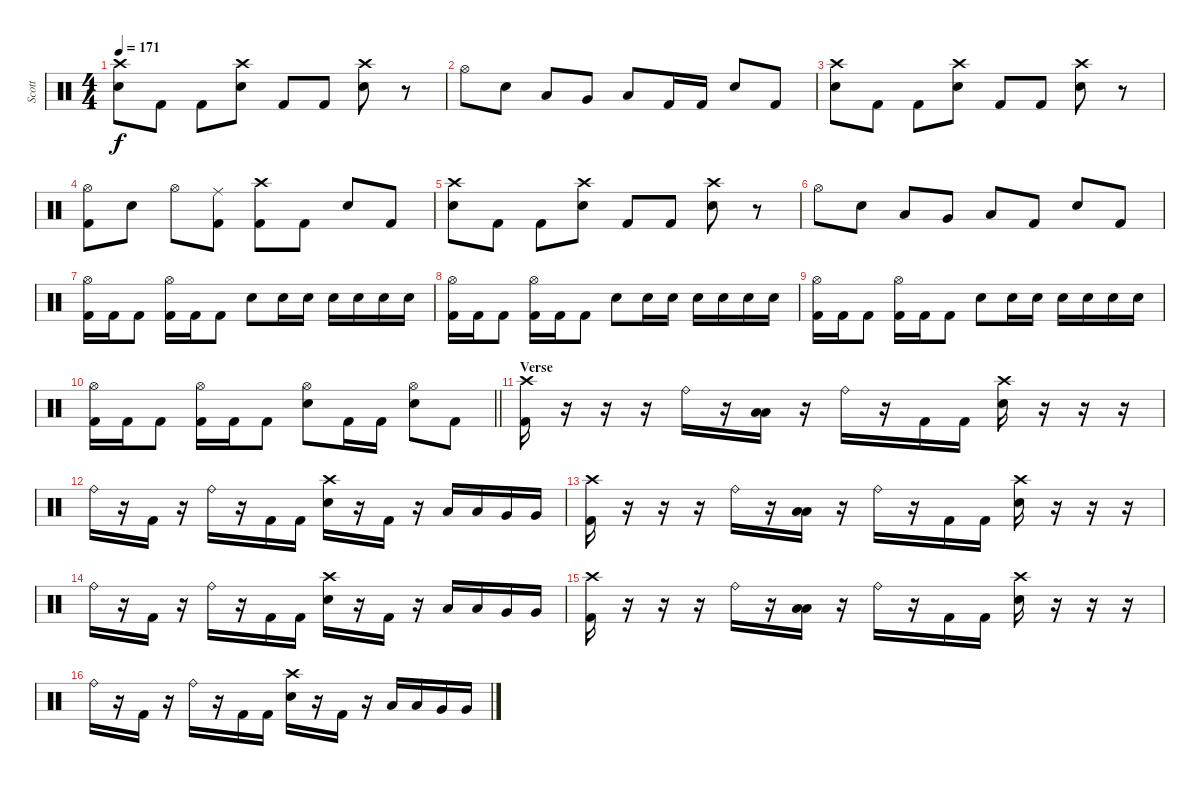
\track ("Scott" "Scott") {instrument percussion}
\staff {score}
\articulation defaults
\ts (4 4)
\tempo 171
\clef neutral
\ks c
("Crash high (hit)" "Electric Snare (hit)").8{dy f} "Kick (hit) 2".8 "Kick (hit) 2".8 ("Crash high (hit)" "Electric Snare (hit)").8 "Kick (hit) 2".8 "Kick (hit) 2".8 ("Crash high (hit)" "Electric Snare (hit)").8 r.8 |
"Hi-Hat (open)".8 "Electric Snare (hit)".8 "Low Tom (hit)".8 "Very Low Tom (hit)".8 "Low Floor Tom (hit)".8 "Kick (hit) 2".16 "Kick (hit) 2".16 "Electric Snare (hit)".8 "Kick (hit) 2".8 |
("Crash high (hit)" "Electric Snare (hit)").8 "Kick (hit) 2".8 "Kick (hit) 2".8 ("Crash high (hit)" "Electric Snare (hit)").8 "Kick (hit) 2".8 "Kick (hit) 2".8 ("Crash high (hit)" "Electric Snare (hit)").8 r.8 |
("Hi-Hat (open)" "Kick (hit) 2").8 "Electric Snare (hit)".8 "Hi-Hat (open)".8 ("Ride (middle)" "Kick (hit) 2").8 ("Crash high (hit)" "Kick (hit) 2").8 "Kick (hit) 2".8 "Electric Snare (hit)".8 "Kick (hit) 2".8 |
("Crash high (hit)" "Electric Snare (hit)").8 "Kick (hit) 2".8 "Kick (hit) 2".8 ("Crash high (hit)" "Electric Snare (hit)").8 "Kick (hit) 2".8 "Kick (hit) 2".8 ("Crash high (hit)" "Electric Snare (hit)").8 r.8 |
"Hi-Hat (open)".8 "Electric Snare (hit)".8 "Low Tom (hit)".8 "Very Low Tom (hit)".8 "Low Floor Tom (hit)".8 "Kick (hit) 2".8 "Electric Snare (hit)".8 "Kick (hit) 2".8 |
("Hi-Hat (open)" "Kick (hit) 2").16 "Kick (hit) 2".16 "Kick (hit) 2".8 ("Hi-Hat (open)" "Kick (hit) 2").16 "Kick (hit) 2".16 "Kick (hit) 2".8 "Electric Snare (hit)".8 "Electric Snare (hit)".16 "Electric Snare (hit)".16 "Electric Snare (hit)".16 "Electric Snare (hit)".16 "Electric Snare (hit)".16 "Electric Snare (hit)".16 |
("Hi-Hat (open)" "Kick (hit) 2").16 "Kick (hit) 2".16 "Kick (hit) 2".8 ("Hi-Hat (open)" "Kick (hit) 2").16 "Kick (hit) 2".16 "Kick (hit) 2".8 "Electric Snare (hit)".8 "Electric Snare (hit)".16 "Electric Snare (hit)".16 "Electric Snare (hit)".16 "Electric Snare (hit)".16 "Electric Snare (hit)".16 "Electric Snare (hit)".16 |
("Hi-Hat (open)" "Kick (hit) 2").16 "Kick (hit) 2".16 "Kick (hit) 2".8 ("Hi-Hat (open)" "Kick (hit) 2").16 "Kick (hit) 2".16 "Kick (hit) 2".8 "Electric Snare (hit)".8 "Electric Snare (hit)".16 "Electric Snare (hit)".16 "Electric Snare (hit)".16 "Electric Snare (hit)".16 "Electric Snare (hit)".16 "Electric Snare (hit)".16 |
\barLineRight lightlight
("Hi-Hat (open)" "Kick (hit) 2").16 "Kick (hit) 2".16 "Kick (hit) 2".8 ("Hi-Hat (open)" "Kick (hit) 2").16 "Kick (hit) 2".16 "Kick (hit) 2".8 ("Hi-Hat (open)" "Electric Snare (hit)").8 "Kick (hit) 2".16 "Kick (hit) 2".16 ("Hi-Hat (open)" "Electric Snare (hit)").8 "Kick (hit) 2".8 |
\section ("" "Verse")
("Crash high (hit)" "Kick (hit) 2").16 r.16 r.16 r.16 "Ride (bell)".16 r.16 ("Low Tom (hit)" "Low Tom (hit)").16 r.16 "Ride (bell)".16 r.16 "Kick (hit) 2".16 "Kick (hit) 2".16 ("Crash high (hit)" "Electric Snare (hit)").16 r.16 r.16 r.16 |
"Ride (bell)".16 r.16 "Kick (hit) 2".16 r.16 "Ride (bell)".16 r.16 "Kick (hit) 2".16 "Kick (hit) 2".16 ("Crash high (hit)" "Electric Snare (hit)").16 r.16 "Kick (hit) 2".16 r.16 "Low Tom (hit)".16 "Low Tom (hit)".16 "Very Low Tom (hit)".16 "Very Low Tom (hit)".16 |
("Crash high (hit)" "Kick (hit) 2").16 r.16 r.16 r.16 "Ride (bell)".16 r.16 ("Low Tom (hit)" "Low Tom (hit)").16 r.16 "Ride (bell)".16 r.16 "Kick (hit) 2".16 "Kick (hit) 2".16 ("Crash high (hit)" "Electric Snare (hit)").16 r.16 r.16 r.16 |
"Ride (bell)".16 r.16 "Kick (hit) 2".16 r.16 "Ride (bell)".16 r.16 "Kick (hit) 2".16 "Kick (hit) 2".16 ("Crash high (hit)" "Electric Snare (hit)").16 r.16 "Kick (hit) 2".16 r.16 "Low Tom (hit)".16 "Low Tom (hit)".16 "Very Low Tom (hit)".16 "Very Low Tom (hit)".16 |
("Crash high (hit)" "Kick (hit) 2").16 r.16 r.16 r.16 "Ride (bell)".16 r.16 ("Low Tom (hit)" "Low Tom (hit)").16 r.16 "Ride (bell)".16 r.16 "Kick (hit) 2".16 "Kick (hit) 2".16 ("Crash high (hit)" "Electric Snare (hit)").16 r.16 r.16 r.16 |
"Ride (bell)".16 r.16 "Kick (hit) 2".16 r.16 "Ride (bell)".16 r.16 "Kick (hit) 2".16 "Kick (hit) 2".16 ("Crash high (hit)" "Electric Snare (hit)").16 r.16 "Kick (hit) 2".16 r.16 "Low Tom (hit)".16 "Low Tom (hit)".16 "Very Low Tom (hit)".16 "Very Low Tom (hit)".16
